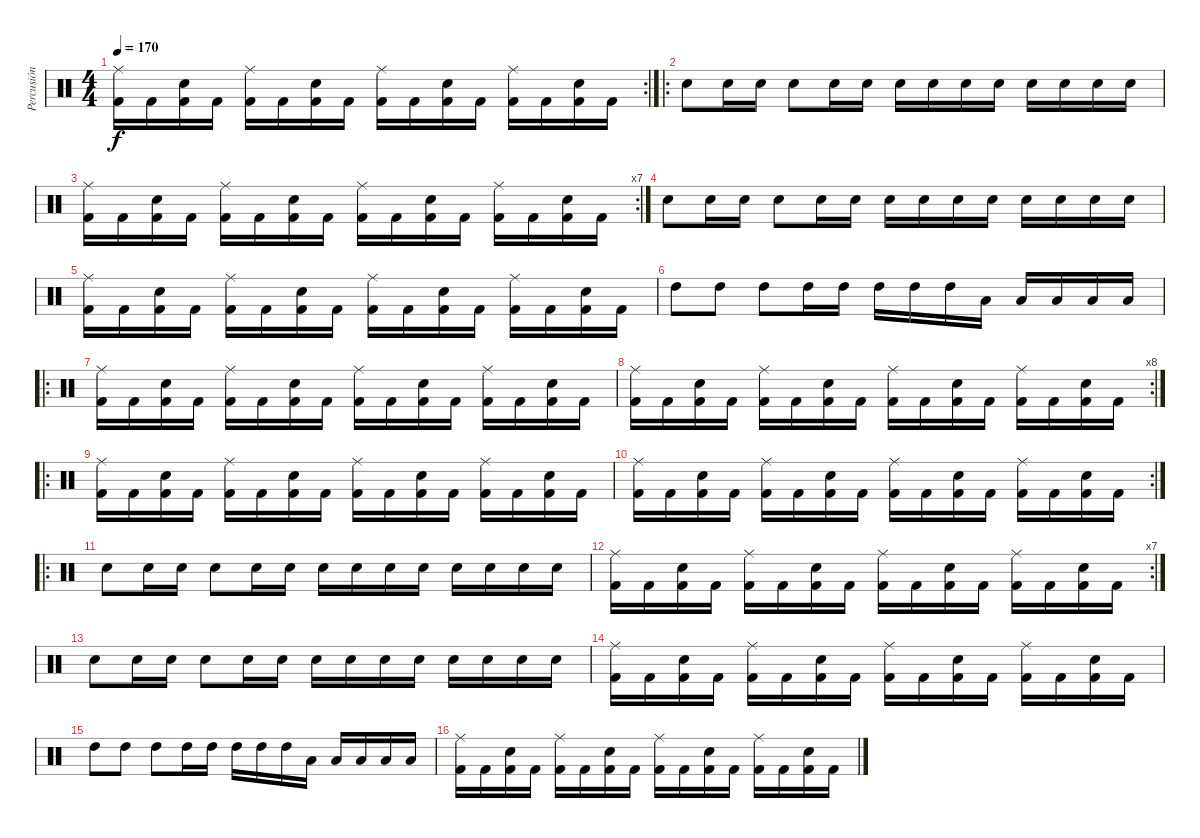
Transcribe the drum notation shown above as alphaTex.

\track ("Percusión" "Percusión") {instrument percussion}
\staff {score}
\articulation defaults
\rc 2
\ts (4 4)
\tempo 170
\clef neutral
\ks c
("Kick (hit) 2" "Ride (middle)").16{dy f} "Kick (hit) 2".16 ("Kick (hit) 2" "Snare (hit) 2").16 "Kick (hit) 2".16 ("Kick (hit) 2" "Ride (middle)").16 "Kick (hit) 2".16 ("Kick (hit) 2" "Snare (hit) 2").16 "Kick (hit) 2".16 ("Kick (hit) 2" "Ride (middle)").16 "Kick (hit) 2".16 ("Kick (hit) 2" "Snare (hit) 2").16 "Kick (hit) 2".16 ("Kick (hit) 2" "Ride (middle)").16 "Kick (hit) 2".16 ("Kick (hit) 2" "Snare (hit) 2").16 "Kick (hit) 2".16 |
\ro "Snare (hit) 2".8 "Snare (hit) 2".16 "Snare (hit) 2".16 "Snare (hit) 2".8 "Snare (hit) 2".16 "Snare (hit) 2".16 "Snare (hit) 2".16 "Snare (hit) 2".16 "Snare (hit) 2".16 "Snare (hit) 2".16 "Snare (hit) 2".16 "Snare (hit) 2".16 "Snare (hit) 2".16 "Snare (hit) 2".16
|
\rc 7
("Kick (hit) 2" "Ride (middle)").16 "Kick (hit) 2".16 ("Kick (hit) 2" "Snare (hit) 2").16 "Kick (hit) 2".16 ("Kick (hit) 2" "Ride (middle)").16 "Kick (hit) 2".16 ("Kick (hit) 2" "Snare (hit) 2").16 "Kick (hit) 2".16 ("Kick (hit) 2" "Ride (middle)").16 "Kick (hit) 2".16 ("Kick (hit) 2" "Snare (hit) 2").16 "Kick (hit) 2".16 ("Kick (hit) 2" "Ride (middle)").16 "Kick (hit) 2".16 ("Kick (hit) 2" "Snare (hit) 2").16 "Kick (hit) 2".16 |
"Snare (hit) 2".8 "Snare (hit) 2".16 "Snare (hit) 2".16 "Snare (hit) 2".8 "Snare (hit) 2".16 "Snare (hit) 2".16 "Snare (hit) 2".16 "Snare (hit) 2".16 "Snare (hit) 2".16 "Snare (hit) 2".16 "Snare (hit) 2".16 "Snare (hit) 2".16 "Snare (hit) 2".16 "Snare (hit) 2".16 |
("Kick (hit) 2" "Ride (middle)").16 "Kick (hit) 2".16 ("Kick (hit) 2" "Snare (hit) 2").16 "Kick (hit) 2".16 ("Kick (hit) 2" "Ride (middle)").16 "Kick (hit) 2".16 ("Kick (hit) 2" "Snare (hit) 2").16 "Kick (hit) 2".16 ("Kick (hit) 2" "Ride (middle)").16 "Kick (hit) 2".16 ("Kick (hit) 2" "Snare (hit) 2").16 "Kick (hit) 2".16 ("Kick (hit) 2" "Ride (middle)").16 "Kick (hit) 2".16 ("Kick (hit) 2" "Snare (hit) 2").16 "Kick (hit) 2".16 |
"High Tom (hit)".8 "High Tom (hit)".8 "High Tom (hit)".8 "High Tom (hit)".16 "High Tom (hit)".16 "High Tom (hit)".16 "High Tom (hit)".16 "High Tom (hit)".16 "Low Tom (hit)".16 "Low Tom (hit)".16 "Low Tom (hit)".16 "Low Tom (hit)".16 "Low Tom (hit)".16 |
\ro
("Kick (hit) 2" "Ride (middle)").16 "Kick (hit) 2".16 ("Kick (hit) 2" "Snare (hit) 2").16 "Kick (hit) 2".16 ("Kick (hit) 2" "Ride (middle)").16 "Kick (hit) 2".16 ("Kick (hit) 2" "Snare (hit) 2").16 "Kick (hit) 2".16 ("Kick (hit) 2" "Ride (middle)").16 "Kick (hit) 2".16 ("Kick (hit) 2" "Snare (hit) 2").16 "Kick (hit) 2".16 ("Kick (hit) 2" "Ride (middle)").16 "Kick (hit) 2".16 ("Kick (hit) 2" "Snare (hit) 2").16 "Kick (hit) 2".16 |
\rc 8
("Kick (hit) 2" "Ride (middle)").16 "Kick (hit) 2".16 ("Kick (hit) 2" "Snare (hit) 2").16 "Kick (hit) 2".16 ("Kick (hit) 2" "Ride (middle)").16 "Kick (hit) 2".16 ("Kick (hit) 2" "Snare (hit) 2").16 "Kick (hit) 2".16 ("Kick (hit) 2" "Ride (middle)").16 "Kick (hit) 2".16 ("Kick (hit) 2" "Snare (hit) 2").16 "Kick (hit) 2".16 ("Kick (hit) 2" "Ride (middle)").16 "Kick (hit) 2".16 ("Kick (hit) 2" "Snare (hit) 2").16 "Kick (hit) 2".16 |
\ro
("Kick (hit) 2" "Ride (middle)").16 "Kick (hit) 2".16 ("Kick (hit) 2" "Snare (hit) 2").16 "Kick (hit) 2".16 ("Kick (hit) 2" "Ride (middle)").16 "Kick (hit) 2".16 ("Kick (hit) 2" "Snare (hit) 2").16 "Kick (hit) 2".16 ("Kick (hit) 2" "Ride (middle)").16 "Kick (hit) 2".16 ("Kick (hit) 2" "Snare (hit) 2").16 "Kick (hit) 2".16 ("Kick (hit) 2" "Ride (middle)").16 "Kick (hit) 2".16 ("Kick (hit) 2" "Snare (hit) 2").16 "Kick (hit) 2".16 |
\rc 2
("Kick (hit) 2" "Ride (middle)").16 "Kick (hit) 2".16 ("Kick (hit) 2" "Snare (hit) 2").16 "Kick (hit) 2".16 ("Kick (hit) 2" "Ride (middle)").16 "Kick (hit) 2".16 ("Kick (hit) 2" "Snare (hit) 2").16 "Kick (hit) 2".16 ("Kick (hit) 2" "Ride (middle)").16 "Kick (hit) 2".16 ("Kick (hit) 2" "Snare (hit) 2").16 "Kick (hit) 2".16 ("Kick (hit) 2" "Ride (middle)").16 "Kick (hit) 2".16 ("Kick (hit) 2" "Snare (hit) 2").16 "Kick (hit) 2".16 |
\ro "Snare (hit) 2".8 "Snare (hit) 2".16 "Snare (hit) 2".16 "Snare (hit) 2".8 "Snare (hit) 2".16 "Snare (hit) 2".16 "Snare (hit) 2".16 "Snare (hit) 2".16 "Snare (hit) 2".16 "Snare (hit) 2".16 "Snare (hit) 2".16 "Snare (hit) 2".16 "Snare (hit) 2".16 "Snare (hit) 2".16
|
\rc 7
("Kick (hit) 2" "Ride (middle)").16 "Kick (hit) 2".16 ("Kick (hit) 2" "Snare (hit) 2").16 "Kick (hit) 2".16 ("Kick (hit) 2" "Ride (middle)").16 "Kick (hit) 2".16 ("Kick (hit) 2" "Snare (hit) 2").16 "Kick (hit) 2".16 ("Kick (hit) 2" "Ride (middle)").16 "Kick (hit) 2".16 ("Kick (hit) 2" "Snare (hit) 2").16 "Kick (hit) 2".16 ("Kick (hit) 2" "Ride (middle)").16 "Kick (hit) 2".16 ("Kick (hit) 2" "Snare (hit) 2").16 "Kick (hit) 2".16 |
"Snare (hit) 2".8 "Snare (hit) 2".16 "Snare (hit) 2".16 "Snare (hit) 2".8 "Snare (hit) 2".16 "Snare (hit) 2".16 "Snare (hit) 2".16 "Snare (hit) 2".16 "Snare (hit) 2".16 "Snare (hit) 2".16 "Snare (hit) 2".16 "Snare (hit) 2".16 "Snare (hit) 2".16 "Snare (hit) 2".16 |
("Kick (hit) 2" "Ride (middle)").16 "Kick (hit) 2".16 ("Kick (hit) 2" "Snare (hit) 2").16 "Kick (hit) 2".16 ("Kick (hit) 2" "Ride (middle)").16 "Kick (hit) 2".16 ("Kick (hit) 2" "Snare (hit) 2").16 "Kick (hit) 2".16 ("Kick (hit) 2" "Ride (middle)").16 "Kick (hit) 2".16 ("Kick (hit) 2" "Snare (hit) 2").16 "Kick (hit) 2".16 ("Kick (hit) 2" "Ride (middle)").16 "Kick (hit) 2".16 ("Kick (hit) 2" "Snare (hit) 2").16 "Kick (hit) 2".16 |
"High Tom (hit)".8 "High Tom (hit)".8 "High Tom (hit)".8 "High Tom (hit)".16 "High Tom (hit)".16 "High Tom (hit)".16 "High Tom (hit)".16 "High Tom (hit)".16 "Low Tom (hit)".16 "Low Tom (hit)".16 "Low Tom (hit)".16 "Low Tom (hit)".16 "Low Tom (hit)".16 |
("Kick (hit) 2" "Ride (middle)").16 "Kick (hit) 2".16 ("Kick (hit) 2" "Snare (hit) 2").16 "Kick (hit) 2".16 ("Kick (hit) 2" "Ride (middle)").16 "Kick (hit) 2".16 ("Kick (hit) 2" "Snare (hit) 2").16 "Kick (hit) 2".16 ("Kick (hit) 2" "Ride (middle)").16 "Kick (hit) 2".16 ("Kick (hit) 2" "Snare (hit) 2").16 "Kick (hit) 2".16 ("Kick (hit) 2" "Ride (middle)").16 "Kick (hit) 2".16 ("Kick (hit) 2" "Snare (hit) 2").16 "Kick (hit) 2".16
